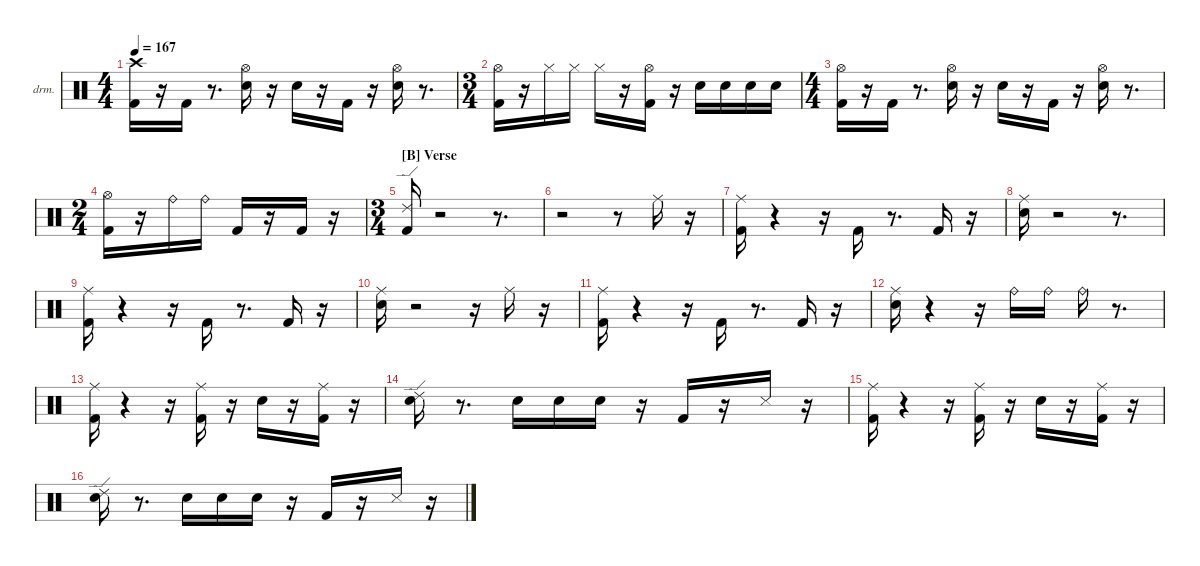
\hideDynamics
\bracketExtendMode nobrackets
\firstSystemTrackNameOrientation horizontal
\otherSystemsTrackNameOrientation horizontal
\track ("Drums" "drm.") {instrument percussion}
\staff {score}
\articulation defaults
\ts (4 4)
\tempo 167
\clef neutral
\ks aminor
("Kick (hit) 2" "Crash high (hit)"{acc #}).16{dy fff beam Down} r.16{beam Down} "Kick (hit) 2".16{dy f beam Up} r.8{d beam Up} ("Snare (hit) 2" "Hi-Hat (open)"{acc #}).16{dy ff beam Down} r.16{beam Down} "Snare (hit) 2".16{dy p beam Down} r.16{beam Down} "Kick (hit) 2".16{dy ff beam Up} r.16{beam Up} ("Hi-Hat (open)"{acc #} "Snare (hit) 2").16{beam Down} r.8{d beam Down} |
\ts (3 4)
("Kick (hit) 2" "Hi-Hat (open)"{acc #}).16{beam Down} r.16{beam Down} "Hi-Hat (closed)"{acc #}.16{dy fff beam Down} "Hi-Hat (closed)"{acc #}.16{dy ff beam Down} "Hi-Hat (closed)"{acc #}.16{dy fff beam Down} r.16{beam Down} ("Hi-Hat (open)"{acc #} "Kick (hit) 2").16{dy ff beam Down} r.16{beam Down} "Snare (hit) 2".16{dy mp beam Down} "Snare (hit) 2".16{dy p beam Down} "Snare (hit) 2".16{dy mf beam Down} "Snare (hit) 2".16{dy pp beam Down} |
\ts (4 4)
("Kick (hit) 2" "Hi-Hat (open)"{acc #}).16{dy fff beam Down} r.16{beam Down} "Kick (hit) 2".16{dy f beam Up} r.8{d beam Up} ("Snare (hit) 2" "Hi-Hat (open)"{acc #}).16{dy ff beam Down} r.16{beam Down} "Snare (hit) 2".16{dy p beam Down} r.16{beam Down} "Kick (hit) 2".16{dy ff beam Up} r.16{beam Up} ("Snare (hit) 2" "Hi-Hat (open)"{acc #}).16{beam Down} r.8{d beam Down} |
\ts (2 4)
("Hi-Hat (open)"{acc #} "Kick (hit) 2").16{beam Down} r.16{beam Down} "Ride (bell)".16{dy fff beam Down} "Ride (bell)".16{dy ff beam Down} "Kick (hit) 2".16{dy f beam Up} r.16{beam Up} "Kick (hit) 2".16{dy mf beam Up} r.16{beam Up} |
\ts (3 4)
\section ("B" "Verse")
("Kick (hit) 2" "Ride (edge) 2").16{dy fff beam Up} r.2{beam Up} r.8{d beam Up} |
r.2{beam Down} r.8{beam Down} "Ride (middle)"{acc #}.16{dy mp beam Down} r.16{beam Down} |
("Kick (hit) 2" "Ride (middle)"{acc #}).16{dy ff beam Down} r.4{beam Down} r.16{beam Down} "Kick (hit) 2".16{beam Up} r.8{d beam Up} "Kick (hit) 2".16{beam Up} r.16{beam Up} |
("Ride (middle)"{acc #} "Snare (hit) 2").16{dy mf beam Down} r.2{beam Down} r.8{d beam Down} |
("Ride (middle)"{acc #} "Kick (hit) 2").16{dy fff beam Down} r.4{beam Down} r.16{beam Down} "Kick (hit) 2".16{dy f beam Up} r.8{d beam Up} "Kick (hit) 2".16{beam Up} r.16{beam Up} |
("Ride (middle)"{acc #} "Snare (hit) 2").16{dy mf beam Down} r.2{beam Down} r.16{beam Down} "Ride (middle)"{acc #}.16{dy mp beam Down} r.16{beam Down} |
("Kick (hit) 2" "Ride (middle)"{acc #}).16{dy ff beam Down} r.4{beam Down} r.16{beam Down} "Kick (hit) 2".16{beam Up} r.8{d beam Up} "Kick (hit) 2".16{beam Up} r.16{beam Up} |
("Snare (hit) 2" "Ride (middle)"{acc #}).16{beam Down} r.4{beam Down} r.16{beam Down} "Ride (bell)".16{dy mf beam Down} "Ride (bell)".16{dy mp beam Down} "Ride (bell)".16{dy fff beam Down} r.8{d beam Down} |
("Ride (middle)"{acc #} "Kick (hit) 2").16{dy ff beam Down} r.4{beam Down} r.16{beam Down} ("Ride (middle)"{acc #} "Kick (hit) 2").16{beam Down} r.16{beam Down} "Snare (hit) 2".16{dy mp beam Down} r.16{beam Down} ("Kick (hit) 2" "Ride (middle)"{acc #}).16{dy ff beam Down} r.16{beam Down} |
("Snare (hit) 2" "Ride (edge) 2").16{beam Down} r.8{d beam Down} "Snare (hit) 2".16{dy p beam Down} "Snare (hit) 2".16{dy ppp beam Down} "Snare (hit) 2".16{dy mf beam Down} r.16{beam Down} "Kick (hit) 2".16{dy mp beam Up} r.16{beam Up} "Snare (side stick) 3"{acc #}.16{dy fff beam Down} r.16{beam Down} |
("Ride (middle)"{acc #} "Kick (hit) 2").16{beam Down} r.4{beam Down} r.16{beam Down} ("Kick (hit) 2" "Ride (middle)"{acc #}).16{dy f beam Down} r.16{beam Down} "Snare (hit) 2".16{dy mp beam Down} r.16{beam Down} ("Kick (hit) 2" "Ride (middle)"{acc #}).16{dy ff beam Down} r.16{beam Down} |
("Ride (edge) 2" "Snare (hit) 2").16{dy fff beam Down} r.8{d beam Down} "Snare (hit) 2".16{dy p beam Down} "Snare (hit) 2".16{dy ppp beam Down} "Snare (hit) 2".16{dy mf beam Down} r.16{beam Down} "Kick (hit) 2".16{dy mp beam Up} r.16{beam Up} "Snare (side stick) 3"{acc #}.16{dy fff beam Down} r.16{beam Down}
